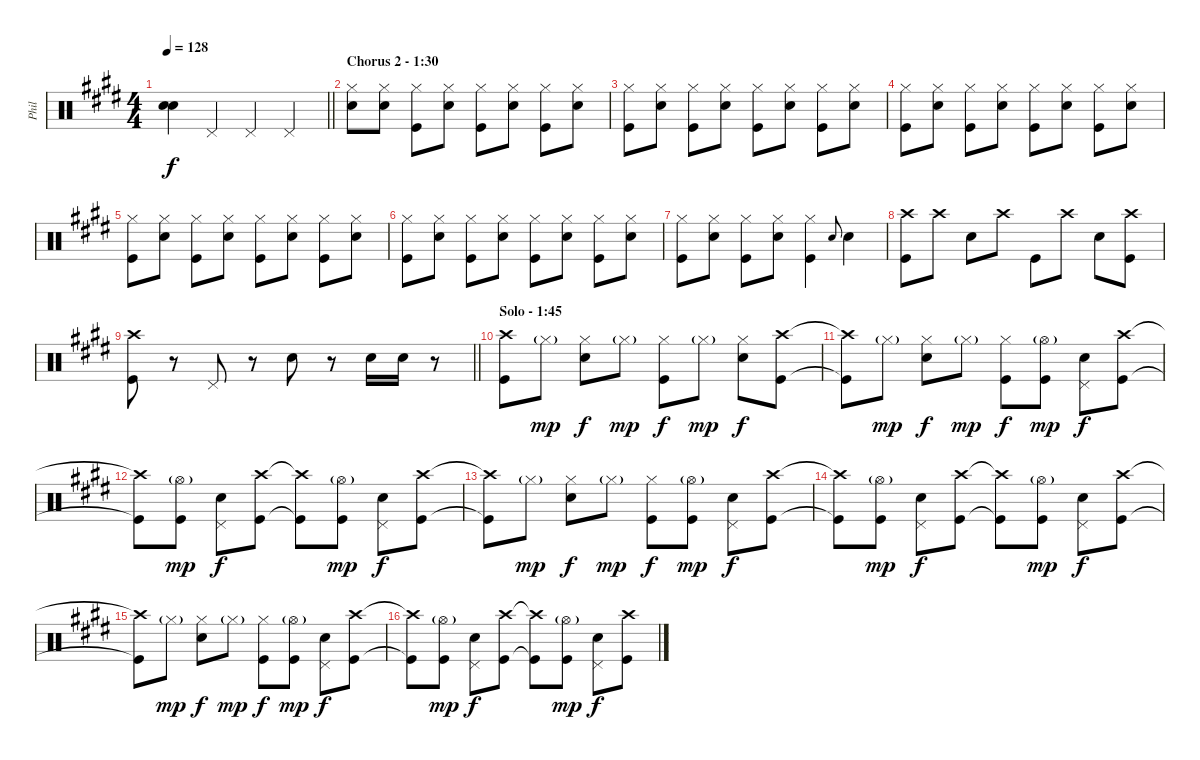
\track ("Phil" "Phil") {instrument percussion}
\staff {score}
\articulation defaults
\ts (4 4)
\tempo 128
\clef neutral
\barLineRight lightlight
\ks e
("Snare (hit)"{t} "Snare (hit)"{t}).4{dy f} "Pedal Hi-Hat (hit)".4 "Pedal Hi-Hat (hit)".4 "Pedal Hi-Hat (hit)".4 |
\section ("" "Chorus 2 - 1:30")
("Hi-Hat (closed)" "Electric Snare (hit)").8 ("Hi-Hat (closed)" "Electric Snare (hit)").8 ("Hi-Hat (closed)" "Kick (hit)").8 ("Hi-Hat (closed)" "Electric Snare (hit)").8 ("Hi-Hat (closed)" "Kick (hit)").8 ("Hi-Hat (closed)" "Electric Snare (hit)").8 ("Hi-Hat (closed)" "Kick (hit)").8 ("Hi-Hat (closed)" "Electric Snare (hit)").8 |
("Hi-Hat (closed)" "Kick (hit)").8 ("Hi-Hat (closed)" "Electric Snare (hit)").8 ("Hi-Hat (closed)" "Kick (hit)").8 ("Hi-Hat (closed)" "Electric Snare (hit)").8 ("Hi-Hat (closed)" "Kick (hit)").8 ("Hi-Hat (closed)" "Electric Snare (hit)").8 ("Hi-Hat (closed)" "Kick (hit)").8 ("Hi-Hat (closed)" "Electric Snare (hit)").8 |
("Hi-Hat (closed)" "Kick (hit)").8 ("Hi-Hat (closed)" "Electric Snare (hit)").8 ("Hi-Hat (closed)" "Kick (hit)").8 ("Hi-Hat (closed)" "Electric Snare (hit)").8 ("Hi-Hat (closed)" "Kick (hit)").8 ("Hi-Hat (closed)" "Electric Snare (hit)").8 ("Hi-Hat (closed)" "Kick (hit)").8 ("Hi-Hat (closed)" "Electric Snare (hit)").8 |
("Hi-Hat (closed)" "Kick (hit)").8 ("Hi-Hat (closed)" "Electric Snare (hit)").8 ("Hi-Hat (closed)" "Kick (hit)").8 ("Hi-Hat (closed)" "Electric Snare (hit)").8 ("Hi-Hat (closed)" "Kick (hit)").8 ("Hi-Hat (closed)" "Electric Snare (hit)").8 ("Hi-Hat (closed)" "Kick (hit)").8 ("Hi-Hat (closed)" "Electric Snare (hit)").8 |
("Hi-Hat (closed)" "Kick (hit)").8 ("Hi-Hat (closed)" "Electric Snare (hit)").8 ("Hi-Hat (closed)" "Kick (hit)").8 ("Hi-Hat (closed)" "Electric Snare (hit)").8 ("Hi-Hat (closed)" "Kick (hit)").8 ("Hi-Hat (closed)" "Electric Snare (hit)").8 ("Hi-Hat (closed)" "Kick (hit)").8 ("Hi-Hat (closed)" "Electric Snare (hit)").8 |
("Hi-Hat (closed)" "Kick (hit)").8 ("Hi-Hat (closed)" "Electric Snare (hit)").8 ("Hi-Hat (closed)" "Kick (hit)").8 ("Hi-Hat (closed)" "Electric Snare (hit)").8 ("Hi-Hat (closed)" "Kick (hit)").4 "Electric Snare (hit)".8{gr onbeat} "Electric Snare (hit)".4 |
("Crash high (hit)" "Kick (hit)").8 "Crash high (hit)".8 "Electric Snare (hit)".8 "Crash high (hit)".8 "Kick (hit)".8 "Crash high (hit)".8 "Electric Snare (hit)".8 ("Crash high (hit)" "Kick (hit)").8 |
\barLineRight lightlight
("Crash high (hit)" "Kick (hit)").8 r.8 "Pedal Hi-Hat (hit)".8 r.8 "Electric Snare (hit)".8 r.8 "Electric Snare (hit)".16 "Electric Snare (hit)".16 r.8 |
\section ("" "Solo - 1:45")
("Crash high (hit)" "Kick (hit)").8 "Hi-Hat (closed)"{g}.8{dy mp} ("Hi-Hat (closed)" "Electric Snare (hit)").8{dy f} "Hi-Hat (closed)"{g}.8{dy mp} ("Hi-Hat (closed)" "Kick (hit)").8{dy f} "Hi-Hat (closed)"{g}.8{dy mp} ("Hi-Hat (closed)" "Electric Snare (hit)").8{dy f} ("Crash high (hit)" "Kick (hit)").8 |
("Crash high (hit)"{t} "Kick (hit)"{t}).8 "Hi-Hat (closed)"{g}.8{dy mp} ("Hi-Hat (closed)" "Electric Snare (hit)").8{dy f} "Hi-Hat (closed)"{g}.8{dy mp} ("Hi-Hat (closed)" "Kick (hit)").8{dy f} ("Hi-Hat (open)"{g} "Kick (hit)").8{dy mp} ("Pedal Hi-Hat (hit)" "Electric Snare (hit)").8{dy f} ("Crash high (hit)" "Kick (hit)").8 |
("Crash high (hit)"{t} "Kick (hit)"{t}).8 ("Hi-Hat (open)"{g} "Kick (hit)").8{dy mp} ("Pedal Hi-Hat (hit)" "Electric Snare (hit)").8{dy f} ("Crash high (hit)" "Kick (hit)").8 ("Crash high (hit)"{t} "Kick (hit)"{t}).8 ("Hi-Hat (open)"{g} "Kick (hit)").8{dy mp} ("Pedal Hi-Hat (hit)" "Electric Snare (hit)").8{dy f} ("Crash high (hit)" "Kick (hit)").8 |
("Crash high (hit)"{t} "Kick (hit)"{t}).8 "Hi-Hat (closed)"{g}.8{dy mp} ("Hi-Hat (closed)" "Electric Snare (hit)").8{dy f} "Hi-Hat (closed)"{g}.8{dy mp} ("Hi-Hat (closed)" "Kick (hit)").8{dy f} ("Hi-Hat (open)"{g} "Kick (hit)").8{dy mp} ("Pedal Hi-Hat (hit)" "Electric Snare (hit)").8{dy f} ("Crash high (hit)" "Kick (hit)").8 |
("Crash high (hit)"{t} "Kick (hit)"{t}).8 ("Hi-Hat (open)"{g} "Kick (hit)").8{dy mp} ("Pedal Hi-Hat (hit)" "Electric Snare (hit)").8{dy f} ("Crash high (hit)" "Kick (hit)").8 ("Crash high (hit)"{t} "Kick (hit)"{t}).8 ("Hi-Hat (open)"{g} "Kick (hit)").8{dy mp} ("Pedal Hi-Hat (hit)" "Electric Snare (hit)").8{dy f} ("Crash high (hit)" "Kick (hit)").8 |
("Crash high (hit)"{t} "Kick (hit)"{t}).8 "Hi-Hat (closed)"{g}.8{dy mp} ("Hi-Hat (closed)" "Electric Snare (hit)").8{dy f} "Hi-Hat (closed)"{g}.8{dy mp} ("Hi-Hat (closed)" "Kick (hit)").8{dy f} ("Hi-Hat (open)"{g} "Kick (hit)").8{dy mp} ("Pedal Hi-Hat (hit)" "Electric Snare (hit)").8{dy f} ("Crash high (hit)" "Kick (hit)").8 |
("Crash high (hit)"{t} "Kick (hit)"{t}).8 ("Hi-Hat (open)"{g} "Kick (hit)").8{dy mp} ("Pedal Hi-Hat (hit)" "Electric Snare (hit)").8{dy f} ("Crash high (hit)" "Kick (hit)").8 ("Crash high (hit)"{t} "Kick (hit)"{t}).8 ("Hi-Hat (open)"{g} "Kick (hit)").8{dy mp} ("Pedal Hi-Hat (hit)" "Electric Snare (hit)").8{dy f} ("Crash high (hit)" "Kick (hit)").8
